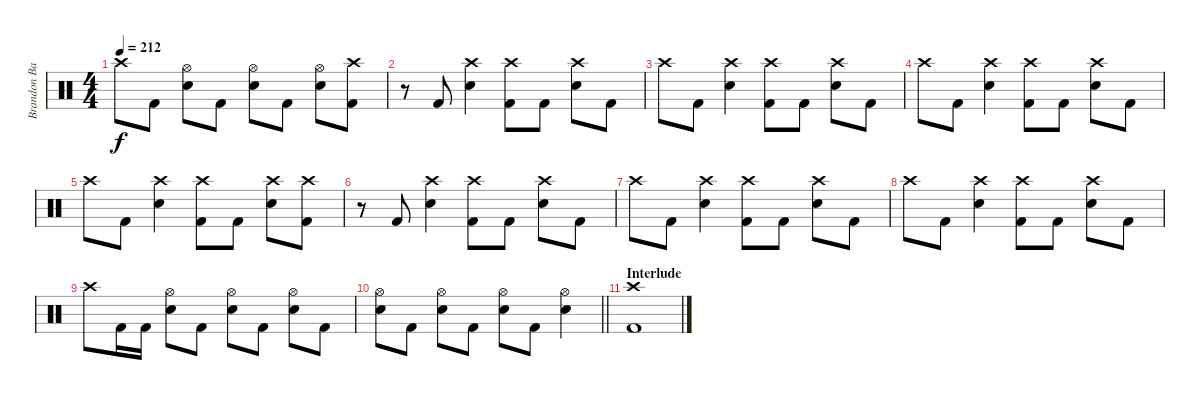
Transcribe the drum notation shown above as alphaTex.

\track ("Brandon Barnes - Drums" "Brandon Ba") {instrument percussion}
\staff {score}
\articulation defaults
\ts (4 4)
\tempo 212
\clef neutral
\ks c "Crash high (hit)".8{dy f} "Kick (hit) 2".8
("Snare (hit) 2" "Hi-Hat (open)").8 "Kick (hit) 2".8 ("Snare (hit) 2" "Hi-Hat (open)").8 "Kick (hit) 2".8 ("Snare (hit) 2" "Hi-Hat (open)").8 ("Kick (hit) 2" "Crash high (hit)").8 |
r.8 "Kick (hit) 2".8 ("Snare (hit) 2" "Crash high (hit)").4 ("Kick (hit) 2" "Crash high (hit)").8 "Kick (hit) 2".8 ("Snare (hit) 2" "Crash high (hit)").8 "Kick (hit) 2".8 |
"Crash high (hit)".8 "Kick (hit) 2".8 ("Snare (hit) 2" "Crash high (hit)").4 ("Kick (hit) 2" "Crash high (hit)").8 "Kick (hit) 2".8 ("Snare (hit) 2" "Crash high (hit)").8 "Kick (hit) 2".8 |
"Crash high (hit)".8 "Kick (hit) 2".8 ("Snare (hit) 2" "Crash high (hit)").4 ("Kick (hit) 2" "Crash high (hit)").8 "Kick (hit) 2".8 ("Snare (hit) 2" "Crash high (hit)").8 "Kick (hit) 2".8 |
"Crash high (hit)".8 "Kick (hit) 2".8 ("Snare (hit) 2" "Crash high (hit)").4 ("Kick (hit) 2" "Crash high (hit)").8 "Kick (hit) 2".8 ("Snare (hit) 2" "Crash high (hit)").8 ("Kick (hit) 2" "Crash high (hit)").8 |
r.8 "Kick (hit) 2".8 ("Snare (hit) 2" "Crash high (hit)").4 ("Kick (hit) 2" "Crash high (hit)").8 "Kick (hit) 2".8 ("Snare (hit) 2" "Crash high (hit)").8 "Kick (hit) 2".8 |
"Crash high (hit)".8 "Kick (hit) 2".8 ("Snare (hit) 2" "Crash high (hit)").4 ("Kick (hit) 2" "Crash high (hit)").8 "Kick (hit) 2".8 ("Snare (hit) 2" "Crash high (hit)").8 "Kick (hit) 2".8 |
"Crash high (hit)".8 "Kick (hit) 2".8 ("Snare (hit) 2" "Crash high (hit)").4 ("Kick (hit) 2" "Crash high (hit)").8 "Kick (hit) 2".8 ("Snare (hit) 2" "Crash high (hit)").8 "Kick (hit) 2".8 |
"Crash high (hit)".8 "Kick (hit) 2".16 "Kick (hit) 2".16 ("Snare (hit) 2" "Hi-Hat (open)").8 "Kick (hit) 2".8 ("Hi-Hat (open)" "Snare (hit) 2").8 "Kick (hit) 2".8 ("Hi-Hat (open)" "Snare (hit) 2").8 "Kick (hit) 2".8 |
\barLineRight lightlight
("Hi-Hat (open)" "Snare (hit) 2").8 "Kick (hit) 2".8 ("Hi-Hat (open)" "Snare (hit) 2").8 "Kick (hit) 2".8 ("Hi-Hat (open)" "Snare (hit) 2").8 "Kick (hit) 2".8 ("Hi-Hat (open)" "Snare (hit) 2").4 |
\section ("" "Interlude")
("Crash high (hit)" "Kick (hit) 2").1
